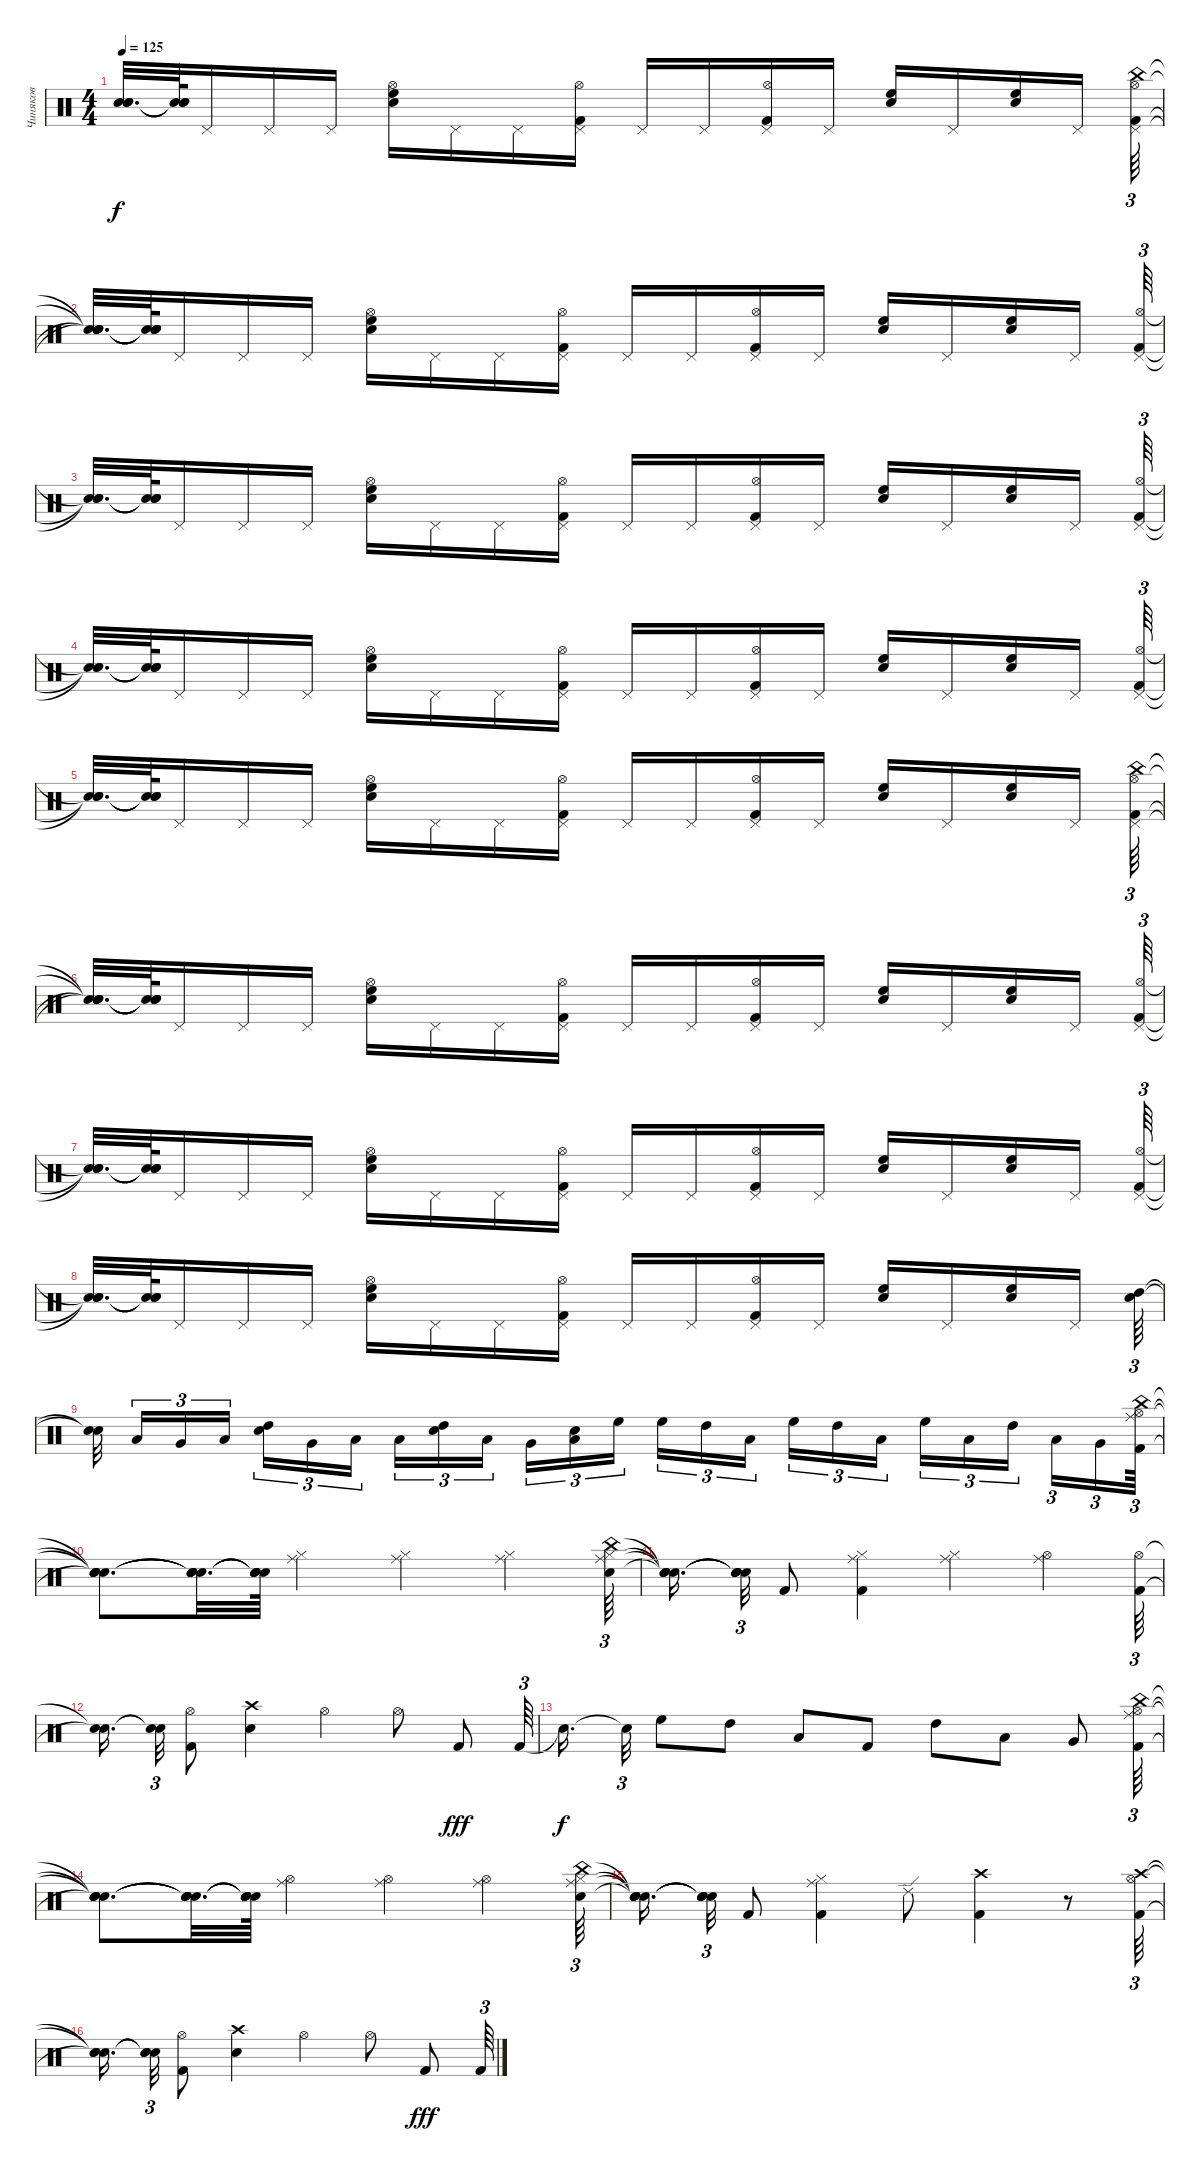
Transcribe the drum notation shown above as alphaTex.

\track ("Чиняков" "Чиняков") {instrument percussion}
\staff {score}
\articulation defaults
\ts (4 4)
\tempo 125
\clef neutral
\ks c
("Snare (hit)"{t} "Snare (hit)"{t} "Snare (hit)"{t}).32{d dy f} ("Snare (hit)"{t} "Snare (hit)"{t} "Snare (hit)"{t}).64 "Pedal Hi-Hat (hit)".16 "Pedal Hi-Hat (hit)".16 "Pedal Hi-Hat (hit)".16 ("Electric Snare (hit)" "High Floor Tom (hit)" "Hi-Hat (open)").16 "Pedal Hi-Hat (hit)".16 "Pedal Hi-Hat (hit)".16 ("Pedal Hi-Hat (hit)" "Kick (hit) 2" "Hi-Hat (open)").16 "Pedal Hi-Hat (hit)".16 "Pedal Hi-Hat (hit)".16 ("Pedal Hi-Hat (hit)" "Kick (hit) 2" "Hi-Hat (open)").16 "Pedal Hi-Hat (hit)".16 ("High Floor Tom (hit)" "Electric Snare (hit)").16 "Pedal Hi-Hat (hit)".16 ("High Floor Tom (hit)" "Electric Snare (hit)").16 "Pedal Hi-Hat (hit)".16 ("Pedal Hi-Hat (hit)" "Kick (hit) 2" "Hi-Hat (open)" "China (hit)").64{tu (3 2)} |
("Snare (hit)"{t} "Snare (hit)"{t} "Snare (hit)"{t} "Snare (hit)"{t}).32{d} ("Snare (hit)"{t} "Snare (hit)"{t} "Snare (hit)"{t} "Snare (hit)"{t}).64 "Pedal Hi-Hat (hit)".16 "Pedal Hi-Hat (hit)".16 "Pedal Hi-Hat (hit)".16 ("Electric Snare (hit)" "High Floor Tom (hit)" "Hi-Hat (open)").16 "Pedal Hi-Hat (hit)".16 "Pedal Hi-Hat (hit)".16 ("Pedal Hi-Hat (hit)" "Kick (hit) 2" "Hi-Hat (open)").16 "Pedal Hi-Hat (hit)".16 "Pedal Hi-Hat (hit)".16 ("Pedal Hi-Hat (hit)" "Kick (hit) 2" "Hi-Hat (open)").16 "Pedal Hi-Hat (hit)".16 ("High Floor Tom (hit)" "Electric Snare (hit)").16 "Pedal Hi-Hat (hit)".16 ("High Floor Tom (hit)" "Electric Snare (hit)").16 "Pedal Hi-Hat (hit)".16 ("Pedal Hi-Hat (hit)" "Kick (hit) 2" "Hi-Hat (open)").64{tu (3 2)} |
("Snare (hit)"{t} "Snare (hit)"{t} "Snare (hit)"{t}).32{d} ("Snare (hit)"{t} "Snare (hit)"{t} "Snare (hit)"{t}).64 "Pedal Hi-Hat (hit)".16 "Pedal Hi-Hat (hit)".16 "Pedal Hi-Hat (hit)".16 ("Electric Snare (hit)" "High Floor Tom (hit)" "Hi-Hat (open)").16 "Pedal Hi-Hat (hit)".16 "Pedal Hi-Hat (hit)".16 ("Pedal Hi-Hat (hit)" "Kick (hit) 2" "Hi-Hat (open)").16 "Pedal Hi-Hat (hit)".16 "Pedal Hi-Hat (hit)".16 ("Pedal Hi-Hat (hit)" "Kick (hit) 2" "Hi-Hat (open)").16 "Pedal Hi-Hat (hit)".16 ("High Floor Tom (hit)" "Electric Snare (hit)").16 "Pedal Hi-Hat (hit)".16 ("High Floor Tom (hit)" "Electric Snare (hit)").16 "Pedal Hi-Hat (hit)".16 ("Pedal Hi-Hat (hit)" "Kick (hit) 2" "Hi-Hat (open)").64{tu (3 2)} |
("Snare (hit)"{t} "Snare (hit)"{t} "Snare (hit)"{t}).32{d} ("Snare (hit)"{t} "Snare (hit)"{t} "Snare (hit)"{t}).64 "Pedal Hi-Hat (hit)".16 "Pedal Hi-Hat (hit)".16 "Pedal Hi-Hat (hit)".16 ("Electric Snare (hit)" "High Floor Tom (hit)" "Hi-Hat (open)").16 "Pedal Hi-Hat (hit)".16 "Pedal Hi-Hat (hit)".16 ("Pedal Hi-Hat (hit)" "Kick (hit) 2" "Hi-Hat (open)").16 "Pedal Hi-Hat (hit)".16 "Pedal Hi-Hat (hit)".16 ("Pedal Hi-Hat (hit)" "Kick (hit) 2" "Hi-Hat (open)").16 "Pedal Hi-Hat (hit)".16 ("High Floor Tom (hit)" "Electric Snare (hit)").16 "Pedal Hi-Hat (hit)".16 ("High Floor Tom (hit)" "Electric Snare (hit)").16 "Pedal Hi-Hat (hit)".16 ("Pedal Hi-Hat (hit)" "Kick (hit) 2" "Hi-Hat (open)").64{tu (3 2)} |
("Snare (hit)"{t} "Snare (hit)"{t} "Snare (hit)"{t}).32{d} ("Snare (hit)"{t} "Snare (hit)"{t} "Snare (hit)"{t}).64 "Pedal Hi-Hat (hit)".16 "Pedal Hi-Hat (hit)".16 "Pedal Hi-Hat (hit)".16 ("Electric Snare (hit)" "High Floor Tom (hit)" "Hi-Hat (open)").16 "Pedal Hi-Hat (hit)".16 "Pedal Hi-Hat (hit)".16 ("Pedal Hi-Hat (hit)" "Kick (hit) 2" "Hi-Hat (open)").16 "Pedal Hi-Hat (hit)".16 "Pedal Hi-Hat (hit)".16 ("Pedal Hi-Hat (hit)" "Kick (hit) 2" "Hi-Hat (open)").16 "Pedal Hi-Hat (hit)".16 ("High Floor Tom (hit)" "Electric Snare (hit)").16 "Pedal Hi-Hat (hit)".16 ("High Floor Tom (hit)" "Electric Snare (hit)").16 "Pedal Hi-Hat (hit)".16 ("Pedal Hi-Hat (hit)" "Kick (hit) 2" "Hi-Hat (open)" "China (hit)").64{tu (3 2)} |
("Snare (hit)"{t} "Snare (hit)"{t} "Snare (hit)"{t} "Snare (hit)"{t}).32{d} ("Snare (hit)"{t} "Snare (hit)"{t} "Snare (hit)"{t} "Snare (hit)"{t}).64 "Pedal Hi-Hat (hit)".16 "Pedal Hi-Hat (hit)".16 "Pedal Hi-Hat (hit)".16 ("Electric Snare (hit)" "High Floor Tom (hit)" "Hi-Hat (open)").16 "Pedal Hi-Hat (hit)".16 "Pedal Hi-Hat (hit)".16 ("Pedal Hi-Hat (hit)" "Kick (hit) 2" "Hi-Hat (open)").16 "Pedal Hi-Hat (hit)".16 "Pedal Hi-Hat (hit)".16 ("Pedal Hi-Hat (hit)" "Kick (hit) 2" "Hi-Hat (open)").16 "Pedal Hi-Hat (hit)".16 ("High Floor Tom (hit)" "Electric Snare (hit)").16 "Pedal Hi-Hat (hit)".16 ("High Floor Tom (hit)" "Electric Snare (hit)").16 "Pedal Hi-Hat (hit)".16 ("Pedal Hi-Hat (hit)" "Kick (hit) 2" "Hi-Hat (open)").64{tu (3 2)} |
("Snare (hit)"{t} "Snare (hit)"{t} "Snare (hit)"{t}).32{d} ("Snare (hit)"{t} "Snare (hit)"{t} "Snare (hit)"{t}).64 "Pedal Hi-Hat (hit)".16 "Pedal Hi-Hat (hit)".16 "Pedal Hi-Hat (hit)".16 ("Electric Snare (hit)" "High Floor Tom (hit)" "Hi-Hat (open)").16 "Pedal Hi-Hat (hit)".16 "Pedal Hi-Hat (hit)".16 ("Pedal Hi-Hat (hit)" "Kick (hit) 2" "Hi-Hat (open)").16 "Pedal Hi-Hat (hit)".16 "Pedal Hi-Hat (hit)".16 ("Pedal Hi-Hat (hit)" "Kick (hit) 2" "Hi-Hat (open)").16 "Pedal Hi-Hat (hit)".16 ("High Floor Tom (hit)" "Electric Snare (hit)").16 "Pedal Hi-Hat (hit)".16 ("High Floor Tom (hit)" "Electric Snare (hit)").16 "Pedal Hi-Hat (hit)".16 ("Pedal Hi-Hat (hit)" "Kick (hit) 2" "Hi-Hat (open)").64{tu (3 2)} |
("Snare (hit)"{t} "Snare (hit)"{t} "Snare (hit)"{t}).32{d} ("Snare (hit)"{t} "Snare (hit)"{t} "Snare (hit)"{t}).64 "Pedal Hi-Hat (hit)".16 "Pedal Hi-Hat (hit)".16 "Pedal Hi-Hat (hit)".16 ("Electric Snare (hit)" "High Floor Tom (hit)" "Hi-Hat (open)").16 "Pedal Hi-Hat (hit)".16 "Pedal Hi-Hat (hit)".16 ("Pedal Hi-Hat (hit)" "Kick (hit) 2" "Hi-Hat (open)").16 "Pedal Hi-Hat (hit)".16 "Pedal Hi-Hat (hit)".16 ("Pedal Hi-Hat (hit)" "Kick (hit) 2" "Hi-Hat (open)").16 "Pedal Hi-Hat (hit)".16 ("High Floor Tom (hit)" "Electric Snare (hit)").16 "Pedal Hi-Hat (hit)".16 ("High Floor Tom (hit)" "Electric Snare (hit)").16 "Pedal Hi-Hat (hit)".16 ("High Tom (hit)" "Electric Snare (hit)").64{tu (3 2)} |
("Snare (hit)"{t} "Snare (hit)"{t}).32{beam splitsecondary} "Low Tom (hit)".16{tu (3 2)} "Very Low Tom (hit)".16{tu (3 2)} "Low Floor Tom (hit)".16{tu (3 2) beam splitsecondary} ("High Tom (hit)" "Electric Snare (hit)").16{tu (3 2)} "Very Low Tom (hit)".16{tu (3 2)} "Low Tom (hit)".16{tu (3 2)} "Low Floor Tom (hit)".16{tu (3 2)} ("High Tom (hit)" "Electric Snare (hit)").16{tu (3 2)} "Low Tom (hit)".16{tu (3 2) beam splitsecondary} "Very Low Tom (hit)".16{tu (3 2)} ("Low Floor Tom (hit)" "Electric Snare (hit)").16{tu (3 2)} "High Floor Tom (hit)".16{tu (3 2)} "High Floor Tom (hit)".16{tu (3 2)} "High Tom (hit)".16{tu (3 2)} "Low Tom (hit)".16{tu (3 2) beam splitsecondary} "High Floor Tom (hit)".16{tu (3 2)} "High Tom (hit)".16{tu (3 2)} "Low Tom (hit)".16{tu (3 2)} "High Floor Tom (hit)".16{tu (3 2)} "Low Tom (hit)".16{tu (3 2)} "High Tom (hit)".16{tu (3 2) beam splitsecondary} "Low Tom (hit)".16{tu (3 2)} "Very Low Tom (hit)".16{tu (3 2)} ("Kick (hit) 2" "China (hit)" "Hi-Hat (open)" "Ride (middle)").64{tu (3 2)} |
("Snare (hit)"{t} "Snare (hit)"{t} "Snare (hit)"{t} "Snare (hit)"{t}).8{d} ("Snare (hit)"{t} "Snare (hit)"{t} "Snare (hit)"{t} "Snare (hit)"{t}).32{d} ("Snare (hit)"{t} "Snare (hit)"{t} "Snare (hit)"{t} "Snare (hit)"{t}).64 ("Hi-Hat (closed)" "Ride (middle)").4 ("Hi-Hat (closed)" "Ride (middle)").4 ("Hi-Hat (closed)" "Ride (middle)").4 ("Electric Snare (hit)" "China (hit)" "Hi-Hat (closed)" "Ride (middle)").64{tu (3 2)} |
("Snare (hit)"{t} "Snare (hit)"{t} "Snare (hit)"{t} "Snare (hit)"{t}).16{d beam splitsecondary} ("Snare (hit)"{t} "Snare (hit)"{t} "Snare (hit)"{t} "Snare (hit)"{t}).32{tu (3 2)} "Kick (hit) 2".8 ("Kick (hit) 2" "Hi-Hat (closed)" "Ride (middle)").4 ("Hi-Hat (closed)" "Ride (middle)").4 ("Hi-Hat (open)" "Ride (middle)").4 ("Kick (hit) 2" "Hi-Hat (open)").64{tu (3 2)} |
("Snare (hit)"{t} "Snare (hit)"{t}).16{d beam splitsecondary} ("Snare (hit)"{t} "Snare (hit)"{t}).32{tu (3 2)} ("Kick (hit) 2" "Hi-Hat (open)").8 ("Electric Snare (hit)" "Crash high (hit)").4 "Hi-Hat (open)".4 "Hi-Hat (open)".8 "Kick (hit) 2".8{dy fff} "Kick (hit) 2".64{tu (3 2)} |
"Snare (hit)"{t}.16{d dy f beam splitsecondary} "Snare (hit)"{t}.32{tu (3 2)} "High Floor Tom (hit)".8 "High Tom (hit)".8 "Low Tom (hit)".8 "Kick (hit) 2".8 "High Tom (hit)".8 "Low Tom (hit)".8 "Very Low Tom (hit)".8 ("Kick (hit) 2" "China (hit)" "Hi-Hat (open)" "Ride (middle)").64{tu (3 2)} |
("Snare (hit)"{t} "Snare (hit)"{t} "Snare (hit)"{t} "Snare (hit)"{t}).8{d} ("Snare (hit)"{t} "Snare (hit)"{t} "Snare (hit)"{t} "Snare (hit)"{t}).32{d} ("Snare (hit)"{t} "Snare (hit)"{t} "Snare (hit)"{t} "Snare (hit)"{t}).64 ("Hi-Hat (open)" "Ride (middle)").4 ("Hi-Hat (open)" "Ride (middle)").4 ("Hi-Hat (open)" "Ride (middle)").4 ("Electric Snare (hit)" "China (hit)" "Hi-Hat (closed)" "Ride (middle)").64{tu (3 2)} |
("Snare (hit)"{t} "Snare (hit)"{t} "Snare (hit)"{t} "Snare (hit)"{t}).16{d beam splitsecondary} ("Snare (hit)"{t} "Snare (hit)"{t} "Snare (hit)"{t} "Snare (hit)"{t}).32{tu (3 2)} "Kick (hit) 2".8 ("Kick (hit) 2" "Hi-Hat (closed)" "Ride (middle)").4 "Ride (edge) 2".8 ("Crash high (hit)" "Kick (hit) 2").4 r.8 ("Kick (hit) 2" "Hi-Hat (open)" "Crash high (hit)").64{tu (3 2)} |
("Snare (hit)"{t} "Snare (hit)"{t} "Snare (hit)"{t}).16{d beam splitsecondary} ("Snare (hit)"{t} "Snare (hit)"{t} "Snare (hit)"{t}).32{tu (3 2)} ("Kick (hit) 2" "Hi-Hat (open)").8 ("Electric Snare (hit)" "Crash high (hit)").4 "Hi-Hat (open)".4 "Hi-Hat (open)".8 "Kick (hit) 2".8{dy fff} "Kick (hit) 2".64{tu (3 2)}
